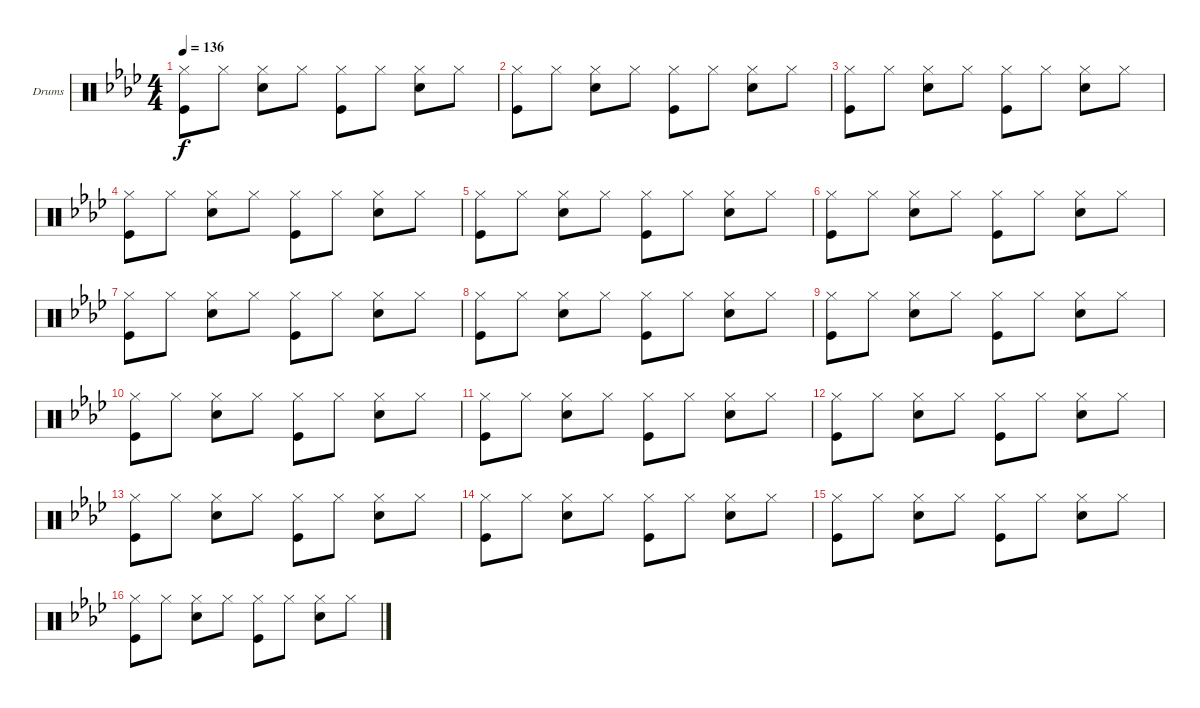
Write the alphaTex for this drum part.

\bracketExtendMode groupsimilarinstruments
\firstSystemTrackNameOrientation horizontal
\otherSystemsTrackNameOrientation horizontal
\track ("Fabrizio" "Drums") {instrument percussion}
\staff {score}
\articulation defaults
\ts (4 4)
\tempo 136
\clef neutral
\ks ab
("Hi-Hat (closed)" "Kick (hit)").8{dy f} "Hi-Hat (closed)".8 ("Hi-Hat (closed)" "Snare (hit) 2").8 "Hi-Hat (closed)".8 ("Hi-Hat (closed)" "Kick (hit)").8 "Hi-Hat (closed)".8 ("Hi-Hat (closed)" "Snare (hit) 2").8 "Hi-Hat (closed)".8 |
("Hi-Hat (closed)" "Kick (hit)").8 "Hi-Hat (closed)".8 ("Hi-Hat (closed)" "Snare (hit) 2").8 "Hi-Hat (closed)".8 ("Hi-Hat (closed)" "Kick (hit)").8 "Hi-Hat (closed)".8 ("Hi-Hat (closed)" "Snare (hit) 2").8 "Hi-Hat (closed)".8 |
("Hi-Hat (closed)" "Kick (hit)").8 "Hi-Hat (closed)".8 ("Hi-Hat (closed)" "Snare (hit) 2").8 "Hi-Hat (closed)".8 ("Hi-Hat (closed)" "Kick (hit)").8 "Hi-Hat (closed)".8 ("Hi-Hat (closed)" "Snare (hit) 2").8 "Hi-Hat (closed)".8 |
("Hi-Hat (closed)" "Kick (hit)").8 "Hi-Hat (closed)".8 ("Hi-Hat (closed)" "Snare (hit) 2").8 "Hi-Hat (closed)".8 ("Hi-Hat (closed)" "Kick (hit)").8 "Hi-Hat (closed)".8 ("Hi-Hat (closed)" "Snare (hit) 2").8 "Hi-Hat (closed)".8 |
("Hi-Hat (closed)" "Kick (hit)").8 "Hi-Hat (closed)".8 ("Hi-Hat (closed)" "Snare (hit) 2").8 "Hi-Hat (closed)".8 ("Hi-Hat (closed)" "Kick (hit)").8 "Hi-Hat (closed)".8 ("Hi-Hat (closed)" "Snare (hit) 2").8 "Hi-Hat (closed)".8 |
("Hi-Hat (closed)" "Kick (hit)").8 "Hi-Hat (closed)".8 ("Hi-Hat (closed)" "Snare (hit) 2").8 "Hi-Hat (closed)".8 ("Hi-Hat (closed)" "Kick (hit)").8 "Hi-Hat (closed)".8 ("Hi-Hat (closed)" "Snare (hit) 2").8 "Hi-Hat (closed)".8 |
("Hi-Hat (closed)" "Kick (hit)").8 "Hi-Hat (closed)".8 ("Hi-Hat (closed)" "Snare (hit) 2").8 "Hi-Hat (closed)".8 ("Hi-Hat (closed)" "Kick (hit)").8 "Hi-Hat (closed)".8 ("Hi-Hat (closed)" "Snare (hit) 2").8 "Hi-Hat (closed)".8 |
("Hi-Hat (closed)" "Kick (hit)").8 "Hi-Hat (closed)".8 ("Hi-Hat (closed)" "Snare (hit) 2").8 "Hi-Hat (closed)".8 ("Hi-Hat (closed)" "Kick (hit)").8 "Hi-Hat (closed)".8 ("Hi-Hat (closed)" "Snare (hit) 2").8 "Hi-Hat (closed)".8 |
("Hi-Hat (closed)" "Kick (hit)").8 "Hi-Hat (closed)".8 ("Hi-Hat (closed)" "Snare (hit) 2").8 "Hi-Hat (closed)".8 ("Hi-Hat (closed)" "Kick (hit)").8 "Hi-Hat (closed)".8 ("Hi-Hat (closed)" "Snare (hit) 2").8 "Hi-Hat (closed)".8 |
("Hi-Hat (closed)" "Kick (hit)").8 "Hi-Hat (closed)".8 ("Hi-Hat (closed)" "Snare (hit) 2").8 "Hi-Hat (closed)".8 ("Hi-Hat (closed)" "Kick (hit)").8 "Hi-Hat (closed)".8 ("Hi-Hat (closed)" "Snare (hit) 2").8 "Hi-Hat (closed)".8 |
("Hi-Hat (closed)" "Kick (hit)").8 "Hi-Hat (closed)".8 ("Hi-Hat (closed)" "Snare (hit) 2").8 "Hi-Hat (closed)".8 ("Hi-Hat (closed)" "Kick (hit)").8 "Hi-Hat (closed)".8 ("Hi-Hat (closed)" "Snare (hit) 2").8 "Hi-Hat (closed)".8 |
("Hi-Hat (closed)" "Kick (hit)").8 "Hi-Hat (closed)".8 ("Hi-Hat (closed)" "Snare (hit) 2").8 "Hi-Hat (closed)".8 ("Hi-Hat (closed)" "Kick (hit)").8 "Hi-Hat (closed)".8 ("Hi-Hat (closed)" "Snare (hit) 2").8 "Hi-Hat (closed)".8 |
("Hi-Hat (closed)" "Kick (hit)").8 "Hi-Hat (closed)".8 ("Hi-Hat (closed)" "Snare (hit) 2").8 "Hi-Hat (closed)".8 ("Hi-Hat (closed)" "Kick (hit)").8 "Hi-Hat (closed)".8 ("Hi-Hat (closed)" "Snare (hit) 2").8 "Hi-Hat (closed)".8 |
("Hi-Hat (closed)" "Kick (hit)").8 "Hi-Hat (closed)".8 ("Hi-Hat (closed)" "Snare (hit) 2").8 "Hi-Hat (closed)".8 ("Hi-Hat (closed)" "Kick (hit)").8 "Hi-Hat (closed)".8 ("Hi-Hat (closed)" "Snare (hit) 2").8 "Hi-Hat (closed)".8 |
("Hi-Hat (closed)" "Kick (hit)").8 "Hi-Hat (closed)".8 ("Hi-Hat (closed)" "Snare (hit) 2").8 "Hi-Hat (closed)".8 ("Hi-Hat (closed)" "Kick (hit)").8 "Hi-Hat (closed)".8 ("Hi-Hat (closed)" "Snare (hit) 2").8 "Hi-Hat (closed)".8 |
("Hi-Hat (closed)" "Kick (hit)").8 "Hi-Hat (closed)".8 ("Hi-Hat (closed)" "Snare (hit) 2").8 "Hi-Hat (closed)".8 ("Hi-Hat (closed)" "Kick (hit)").8 "Hi-Hat (closed)".8 ("Hi-Hat (closed)" "Snare (hit) 2").8 "Hi-Hat (closed)".8
